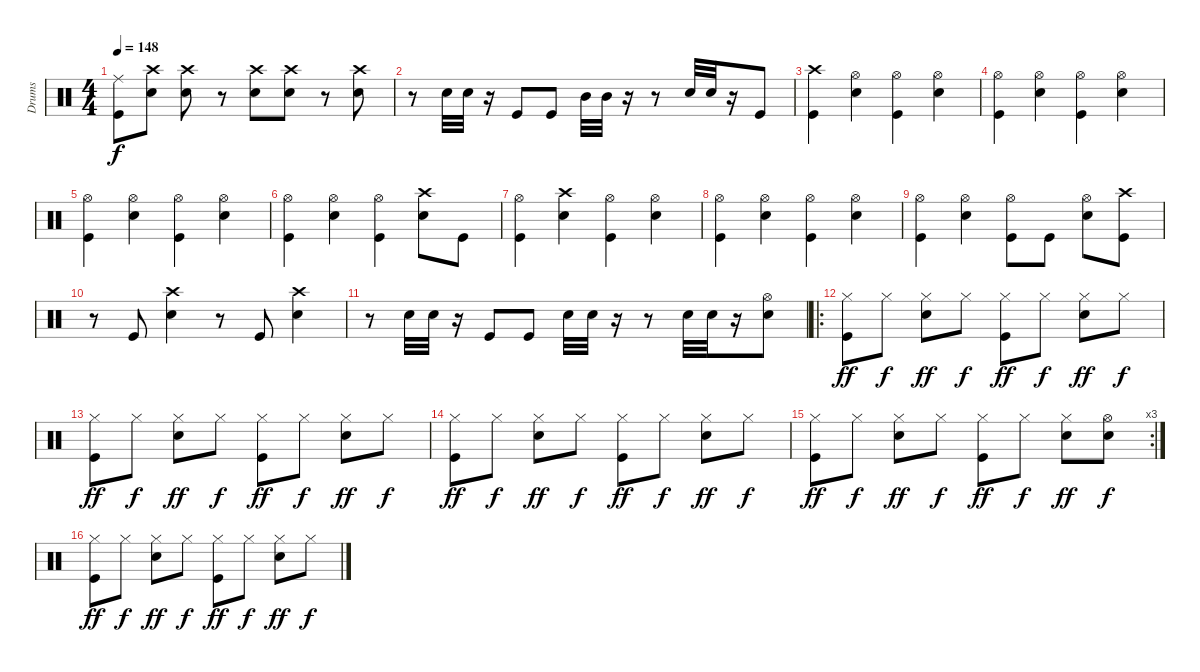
\track ("Drums" "Drums") {instrument percussion}
\staff {score}
\articulation defaults
\ts (4 4)
\tempo 148
\clef neutral
\ks c
("Ride (middle)" "Kick (hit)").8{dy f} ("Crash high (hit)" "Snare (hit) 2").8 ("Crash high (hit)" "Snare (hit) 2").8 r.8 ("Crash high (hit)" "Snare (hit) 2").8 ("Crash high (hit)" "Snare (hit) 2").8 r.8 ("Crash high (hit)" "Snare (hit) 2").8 |
r.8 "Snare (hit) 2".32 "Snare (hit) 2".32 r.16 "Kick (hit)".8 "Kick (hit)".8 "Mid Tom (hit)".32 "Mid Tom (hit)".32 r.16 r.8 "Snare (hit) 2".32 "Snare (hit) 2".32 r.16 "Kick (hit)".8 |
("Crash high (hit)" "Kick (hit)").4 ("Hi-Hat (open)" "Snare (hit) 2").4 ("Hi-Hat (open)" "Kick (hit)").4 ("Hi-Hat (open)" "Snare (hit) 2").4 |
("Hi-Hat (open)" "Kick (hit)").4 ("Hi-Hat (open)" "Snare (hit) 2").4 ("Hi-Hat (open)" "Kick (hit)").4 ("Hi-Hat (open)" "Snare (hit) 2").4 |
("Hi-Hat (open)" "Kick (hit)").4 ("Hi-Hat (open)" "Snare (hit) 2").4 ("Hi-Hat (open)" "Kick (hit)").4 ("Hi-Hat (open)" "Snare (hit) 2").4 |
("Hi-Hat (open)" "Kick (hit)").4 ("Hi-Hat (open)" "Snare (hit) 2").4 ("Hi-Hat (open)" "Kick (hit)").4 ("Crash high (hit)" "Snare (hit) 2").8 "Kick (hit)".8 |
("Hi-Hat (open)" "Kick (hit)").4 ("Crash high (hit)" "Snare (hit) 2").4 ("Hi-Hat (open)" "Kick (hit)").4 ("Hi-Hat (open)" "Snare (hit) 2").4 |
("Hi-Hat (open)" "Kick (hit)").4 ("Hi-Hat (open)" "Snare (hit) 2").4 ("Hi-Hat (open)" "Kick (hit)").4 ("Hi-Hat (open)" "Snare (hit) 2").4 |
("Hi-Hat (open)" "Kick (hit)").4 ("Hi-Hat (open)" "Snare (hit) 2").4 ("Hi-Hat (open)" "Kick (hit)").8 "Kick (hit)".8 ("Hi-Hat (open)" "Snare (hit) 2").8 ("Crash high (hit)" "Kick (hit)").8 |
r.8 "Kick (hit)".8 ("Crash high (hit)" "Snare (hit) 2").4 r.8 "Kick (hit)".8 ("Crash high (hit)" "Snare (hit) 2").4 |
r.8 "Snare (hit) 2".32 "Snare (hit) 2".32 r.16 "Kick (hit)".8 "Kick (hit)".8 "Snare (hit) 2".32 "Snare (hit) 2".32 r.16 r.8 "Snare (hit) 2".32 "Snare (hit) 2".32 r.16 ("Hi-Hat (open)" "Snare (hit) 2").8 |
\ro
("Hi-Hat (closed)" "Kick (hit)").8{dy ff} "Hi-Hat (closed)".8{dy f} ("Hi-Hat (closed)" "Snare (hit) 2").8{dy ff} "Hi-Hat (closed)".8{dy f} ("Hi-Hat (closed)" "Kick (hit)").8{dy ff} "Hi-Hat (closed)".8{dy f} ("Hi-Hat (closed)" "Snare (hit) 2").8{dy ff} "Hi-Hat (closed)".8{dy f} |
("Hi-Hat (closed)" "Kick (hit)").8{dy ff} "Hi-Hat (closed)".8{dy f} ("Hi-Hat (closed)" "Snare (hit) 2").8{dy ff} "Hi-Hat (closed)".8{dy f} ("Hi-Hat (closed)" "Kick (hit)").8{dy ff} "Hi-Hat (closed)".8{dy f} ("Hi-Hat (closed)" "Snare (hit) 2").8{dy ff} "Hi-Hat (closed)".8{dy f} |
("Hi-Hat (closed)" "Kick (hit)").8{dy ff} "Hi-Hat (closed)".8{dy f} ("Hi-Hat (closed)" "Snare (hit) 2").8{dy ff} "Hi-Hat (closed)".8{dy f} ("Hi-Hat (closed)" "Kick (hit)").8{dy ff} "Hi-Hat (closed)".8{dy f} ("Hi-Hat (closed)" "Snare (hit) 2").8{dy ff} "Hi-Hat (closed)".8{dy f} |
\rc 3
("Hi-Hat (closed)" "Kick (hit)").8{dy ff} "Hi-Hat (closed)".8{dy f} ("Hi-Hat (closed)" "Snare (hit) 2").8{dy ff} "Hi-Hat (closed)".8{dy f} ("Hi-Hat (closed)" "Kick (hit)").8{dy ff} "Hi-Hat (closed)".8{dy f} ("Hi-Hat (closed)" "Snare (hit) 2").8{dy ff} ("Hi-Hat (open)" "Snare (hit) 2").8{dy f} |
("Hi-Hat (closed)" "Kick (hit)").8{dy ff} "Hi-Hat (closed)".8{dy f} ("Hi-Hat (closed)" "Snare (hit) 2").8{dy ff} "Hi-Hat (closed)".8{dy f} ("Hi-Hat (closed)" "Kick (hit)").8{dy ff} "Hi-Hat (closed)".8{dy f} ("Hi-Hat (closed)" "Snare (hit) 2").8{dy ff} "Hi-Hat (closed)".8{dy f}
